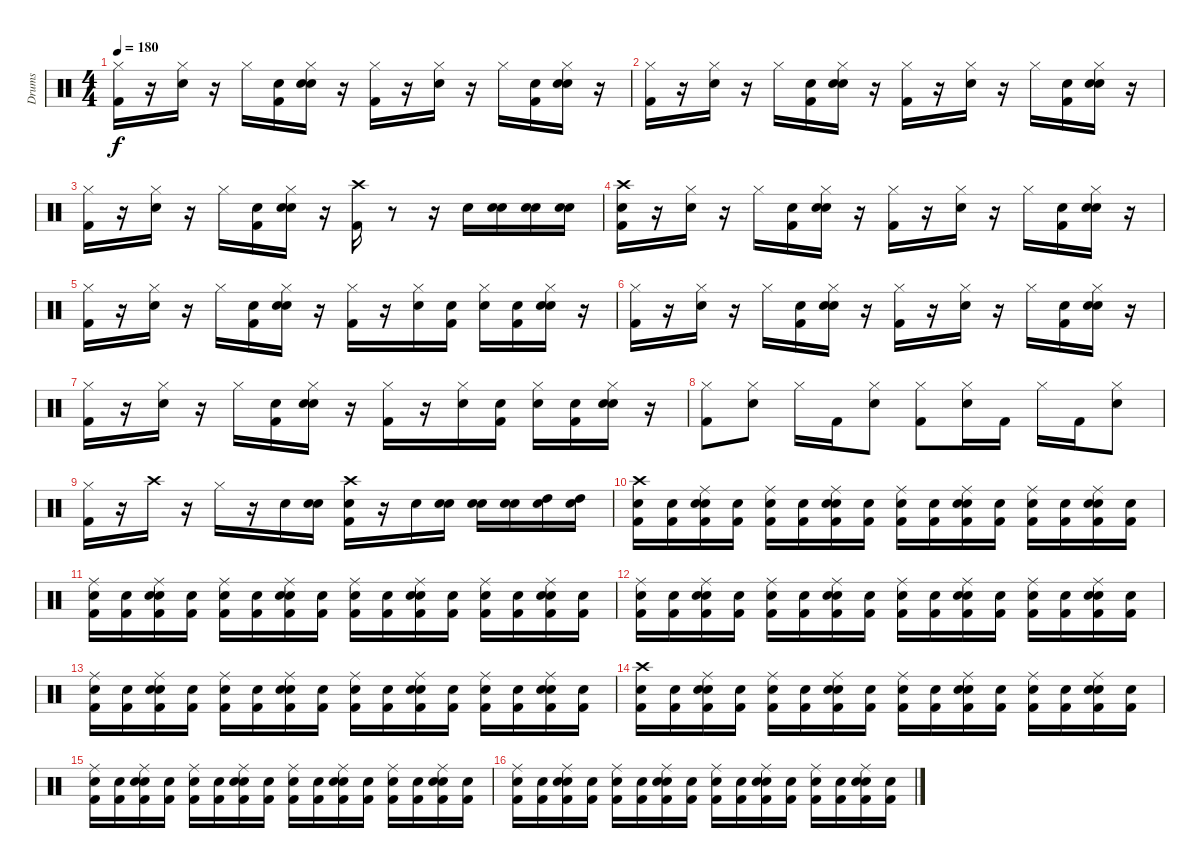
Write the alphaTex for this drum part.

\track ("Drums" "Drums") {instrument percussion}
\staff {score}
\articulation defaults
\ts (4 4)
\tempo 180
\clef neutral
\ks c
("Kick (hit) 2" "Hi-Hat (closed)").16{dy f} r.16 ("Snare (hit) 2" "Hi-Hat (closed)").16 r.16 "Hi-Hat (closed)".16 ("Snare (hit)" "Kick (hit) 2").16 ("Snare (hit)" "Snare (hit) 2" "Hi-Hat (closed)").16 r.16 ("Kick (hit) 2" "Hi-Hat (closed)").16 r.16 ("Snare (hit) 2" "Hi-Hat (closed)").16 r.16 "Hi-Hat (closed)".16 ("Snare (hit)" "Kick (hit) 2").16 ("Snare (hit)" "Snare (hit) 2" "Hi-Hat (closed)").16 r.16 |
("Kick (hit) 2" "Hi-Hat (closed)").16 r.16 ("Snare (hit) 2" "Hi-Hat (closed)").16 r.16 "Hi-Hat (closed)".16 ("Snare (hit)" "Kick (hit) 2").16 ("Snare (hit)" "Snare (hit) 2" "Hi-Hat (closed)").16 r.16 ("Kick (hit) 2" "Hi-Hat (closed)").16 r.16 ("Snare (hit) 2" "Hi-Hat (closed)").16 r.16 "Hi-Hat (closed)".16 ("Snare (hit)" "Kick (hit) 2").16 ("Snare (hit)" "Snare (hit) 2" "Hi-Hat (closed)").16 r.16 |
("Kick (hit) 2" "Hi-Hat (closed)").16 r.16 ("Snare (hit) 2" "Hi-Hat (closed)").16 r.16 "Hi-Hat (closed)".16 ("Snare (hit)" "Kick (hit) 2").16 ("Snare (hit)" "Snare (hit) 2" "Hi-Hat (closed)").16 r.16 ("Crash high (hit)" "Kick (hit) 2").16 r.8 r.16 "Snare (hit) 2".16 ("Snare (hit)" "Snare (hit) 2").16 ("Snare (hit)" "Snare (hit) 2").16 ("Snare (hit)" "Snare (hit) 2").16 |
("Snare (hit)" "Kick (hit) 2" "Crash high (hit)").16 r.16 ("Snare (hit) 2" "Hi-Hat (closed)").16 r.16 "Hi-Hat (closed)".16 ("Snare (hit)" "Kick (hit) 2").16 ("Snare (hit)" "Snare (hit) 2" "Hi-Hat (closed)").16 r.16 ("Kick (hit) 2" "Hi-Hat (closed)").16 r.16 ("Snare (hit) 2" "Hi-Hat (closed)").16 r.16 "Hi-Hat (closed)".16 ("Snare (hit)" "Kick (hit) 2").16 ("Snare (hit)" "Snare (hit) 2" "Hi-Hat (closed)").16 r.16 |
("Kick (hit) 2" "Hi-Hat (closed)").16 r.16 ("Snare (hit) 2" "Hi-Hat (closed)").16 r.16 "Hi-Hat (closed)".16 ("Snare (hit)" "Kick (hit) 2").16 ("Snare (hit)" "Snare (hit) 2" "Hi-Hat (closed)").16 r.16 ("Kick (hit) 2" "Hi-Hat (closed)").16 r.16 ("Snare (hit) 2" "Hi-Hat (closed)").16 ("Snare (hit)" "Kick (hit) 2").16 ("Snare (hit)" "Hi-Hat (closed)").16 ("Snare (hit)" "Kick (hit) 2").16 ("Snare (hit)" "Snare (hit) 2" "Hi-Hat (closed)").16 r.16 |
("Kick (hit) 2" "Hi-Hat (closed)").16 r.16 ("Snare (hit) 2" "Hi-Hat (closed)").16 r.16 "Hi-Hat (closed)".16 ("Snare (hit)" "Kick (hit) 2").16 ("Snare (hit)" "Snare (hit) 2" "Hi-Hat (closed)").16 r.16 ("Kick (hit) 2" "Hi-Hat (closed)").16 r.16 ("Snare (hit) 2" "Hi-Hat (closed)").16 r.16 "Hi-Hat (closed)".16 ("Snare (hit)" "Kick (hit) 2").16 ("Snare (hit)" "Snare (hit) 2" "Hi-Hat (closed)").16 r.16 |
("Hi-Hat (closed)" "Kick (hit) 2").16 r.16 ("Snare (hit) 2" "Hi-Hat (closed)").16 r.16 "Hi-Hat (closed)".16 ("Snare (hit)" "Kick (hit) 2").16 ("Snare (hit)" "Snare (hit) 2" "Hi-Hat (closed)").16 r.16 ("Kick (hit) 2" "Hi-Hat (closed)").16 r.16 ("Snare (hit) 2" "Hi-Hat (closed)").16 ("Snare (hit)" "Kick (hit) 2").16 ("Snare (hit)" "Hi-Hat (closed)").16 ("Snare (hit)" "Kick (hit) 2").16 ("Snare (hit)" "Snare (hit) 2" "Hi-Hat (closed)").16 r.16 |
("Hi-Hat (closed)" "Kick (hit) 2").8 ("Snare (hit) 2" "Hi-Hat (closed)").8 "Hi-Hat (closed)".16 "Kick (hit) 2".16 ("Snare (hit) 2" "Hi-Hat (closed)").8 ("Kick (hit) 2" "Hi-Hat (closed)").8 ("Snare (hit) 2" "Hi-Hat (closed)").16 "Kick (hit) 2".16 "Hi-Hat (closed)".16 "Kick (hit) 2".16 ("Snare (hit) 2" "Hi-Hat (closed)").8 |
("Kick (hit) 2" "Hi-Hat (closed)").16 r.16 "Crash high (hit)".16 r.16 "Hi-Hat (closed)".16 r.16 "Snare (hit) 2".16 ("Snare (hit)" "Snare (hit) 2").16 ("Snare (hit)" "Kick (hit) 2" "Crash high (hit)").16 r.16 "Snare (hit) 2".16 ("Snare (hit)" "Snare (hit) 2").16 ("Snare (hit)" "Snare (hit) 2").16 ("Snare (hit)" "Snare (hit) 2").16 ("Snare (hit)" "High Tom (hit)").16 ("Snare (hit)" "High Tom (hit)").16 |
("Snare (hit)" "Crash high (hit)" "Kick (hit) 2").16 ("Snare (hit)" "Kick (hit) 2").16 ("Snare (hit)" "Snare (hit) 2" "Ride (middle)" "Kick (hit) 2").16 ("Snare (hit)" "Kick (hit) 2").16 ("Snare (hit)" "Ride (middle)" "Kick (hit) 2").16 ("Snare (hit)" "Kick (hit) 2").16 ("Snare (hit)" "Snare (hit) 2" "Ride (middle)" "Kick (hit) 2").16 ("Snare (hit)" "Kick (hit) 2").16 ("Snare (hit)" "Ride (middle)" "Kick (hit) 2").16 ("Snare (hit)" "Kick (hit) 2").16 ("Snare (hit)" "Snare (hit) 2" "Ride (middle)" "Kick (hit) 2").16 ("Snare (hit)" "Kick (hit) 2").16 ("Snare (hit)" "Ride (middle)" "Kick (hit) 2").16 ("Snare (hit)" "Kick (hit) 2").16 ("Snare (hit)" "Snare (hit) 2" "Ride (middle)" "Kick (hit) 2").16 ("Snare (hit)" "Kick (hit) 2").16 |
("Snare (hit)" "Ride (middle)" "Kick (hit) 2").16 ("Snare (hit)" "Kick (hit) 2").16 ("Snare (hit)" "Snare (hit) 2" "Ride (middle)" "Kick (hit) 2").16 ("Snare (hit)" "Kick (hit) 2").16 ("Snare (hit)" "Ride (middle)" "Kick (hit) 2").16 ("Snare (hit)" "Kick (hit) 2").16 ("Snare (hit)" "Snare (hit) 2" "Ride (middle)" "Kick (hit) 2").16 ("Snare (hit)" "Kick (hit) 2").16 ("Snare (hit)" "Kick (hit) 2" "Ride (middle)").16 ("Snare (hit)" "Kick (hit) 2").16 ("Snare (hit)" "Snare (hit) 2" "Ride (middle)" "Kick (hit) 2").16 ("Snare (hit)" "Kick (hit) 2").16 ("Snare (hit)" "Ride (middle)" "Kick (hit) 2").16 ("Snare (hit)" "Kick (hit) 2").16 ("Snare (hit)" "Snare (hit) 2" "Ride (middle)" "Kick (hit) 2").16 ("Snare (hit)" "Kick (hit) 2").16 |
("Snare (hit)" "Ride (middle)" "Kick (hit) 2").16 ("Snare (hit)" "Kick (hit) 2").16 ("Snare (hit)" "Snare (hit) 2" "Ride (middle)" "Kick (hit) 2").16 ("Snare (hit)" "Kick (hit) 2").16 ("Snare (hit)" "Ride (middle)" "Kick (hit) 2").16 ("Snare (hit)" "Kick (hit) 2").16 ("Snare (hit)" "Snare (hit) 2" "Ride (middle)" "Kick (hit) 2").16 ("Snare (hit)" "Kick (hit) 2").16 ("Snare (hit)" "Kick (hit) 2" "Ride (middle)").16 ("Snare (hit)" "Kick (hit) 2").16 ("Snare (hit)" "Snare (hit) 2" "Ride (middle)" "Kick (hit) 2").16 ("Snare (hit)" "Kick (hit) 2").16 ("Snare (hit)" "Ride (middle)" "Kick (hit) 2").16 ("Snare (hit)" "Kick (hit) 2").16 ("Snare (hit)" "Snare (hit) 2" "Ride (middle)" "Kick (hit) 2").16 ("Snare (hit)" "Kick (hit) 2").16 |
("Snare (hit)" "Ride (middle)" "Kick (hit) 2").16 ("Snare (hit)" "Kick (hit) 2").16 ("Snare (hit)" "Snare (hit) 2" "Ride (middle)" "Kick (hit) 2").16 ("Snare (hit)" "Kick (hit) 2").16 ("Snare (hit)" "Ride (middle)" "Kick (hit) 2").16 ("Snare (hit)" "Kick (hit) 2").16 ("Snare (hit)" "Snare (hit) 2" "Ride (middle)" "Kick (hit) 2").16 ("Snare (hit)" "Kick (hit) 2").16 ("Snare (hit)" "Kick (hit) 2" "Ride (middle)").16 ("Snare (hit)" "Kick (hit) 2").16 ("Snare (hit)" "Snare (hit) 2" "Ride (middle)" "Kick (hit) 2").16 ("Snare (hit)" "Kick (hit) 2").16 ("Snare (hit)" "Ride (middle)" "Kick (hit) 2").16 ("Snare (hit)" "Kick (hit) 2").16 ("Snare (hit)" "Snare (hit) 2" "Ride (middle)" "Kick (hit) 2").16 ("Snare (hit)" "Kick (hit) 2").16 |
("Snare (hit)" "Crash high (hit)" "Kick (hit) 2").16 ("Snare (hit)" "Kick (hit) 2").16 ("Snare (hit)" "Snare (hit) 2" "Ride (middle)" "Kick (hit) 2").16 ("Snare (hit)" "Kick (hit) 2").16 ("Snare (hit)" "Ride (middle)" "Kick (hit) 2").16 ("Snare (hit)" "Kick (hit) 2").16 ("Snare (hit)" "Snare (hit) 2" "Kick (hit) 2" "Ride (middle)").16 ("Snare (hit)" "Kick (hit) 2").16 ("Snare (hit)" "Ride (middle)" "Kick (hit) 2").16 ("Snare (hit)" "Kick (hit) 2").16 ("Snare (hit)" "Snare (hit) 2" "Ride (middle)" "Kick (hit) 2").16 ("Snare (hit)" "Kick (hit) 2").16 ("Snare (hit)" "Ride (middle)" "Kick (hit) 2").16 ("Snare (hit)" "Kick (hit) 2").16 ("Snare (hit)" "Snare (hit) 2" "Ride (middle)" "Kick (hit) 2").16 ("Snare (hit)" "Kick (hit) 2").16 |
("Snare (hit)" "Ride (middle)" "Kick (hit) 2").16 ("Snare (hit)" "Kick (hit) 2").16 ("Snare (hit)" "Snare (hit) 2" "Ride (middle)" "Kick (hit) 2").16 ("Snare (hit)" "Kick (hit) 2").16 ("Snare (hit)" "Ride (middle)" "Kick (hit) 2").16 ("Snare (hit)" "Kick (hit) 2").16 ("Snare (hit)" "Snare (hit) 2" "Ride (middle)" "Kick (hit) 2").16 ("Snare (hit)" "Kick (hit) 2").16 ("Snare (hit)" "Ride (middle)" "Kick (hit) 2").16 ("Snare (hit)" "Kick (hit) 2").16 ("Snare (hit)" "Snare (hit) 2" "Ride (middle)" "Kick (hit) 2").16 ("Snare (hit)" "Kick (hit) 2").16 ("Snare (hit)" "Ride (middle)" "Kick (hit) 2").16 ("Snare (hit)" "Kick (hit) 2").16 ("Snare (hit)" "Snare (hit) 2" "Ride (middle)" "Kick (hit) 2").16 ("Snare (hit)" "Kick (hit) 2").16 |
("Snare (hit)" "Ride (middle)" "Kick (hit) 2").16 ("Snare (hit)" "Kick (hit) 2").16 ("Snare (hit)" "Snare (hit) 2" "Ride (middle)" "Kick (hit) 2").16 ("Snare (hit)" "Kick (hit) 2").16 ("Snare (hit)" "Ride (middle)" "Kick (hit) 2").16 ("Snare (hit)" "Kick (hit) 2").16 ("Snare (hit)" "Snare (hit) 2" "Ride (middle)" "Kick (hit) 2").16 ("Snare (hit)" "Kick (hit) 2").16 ("Snare (hit)" "Ride (middle)" "Kick (hit) 2").16 ("Snare (hit)" "Kick (hit) 2").16 ("Snare (hit)" "Snare (hit) 2" "Ride (middle)" "Kick (hit) 2").16 ("Snare (hit)" "Kick (hit) 2").16 ("Snare (hit)" "Ride (middle)" "Kick (hit) 2").16 ("Snare (hit)" "Kick (hit) 2").16 ("Snare (hit)" "Snare (hit) 2" "Ride (middle)" "Kick (hit) 2").16 ("Snare (hit)" "Kick (hit) 2").16
